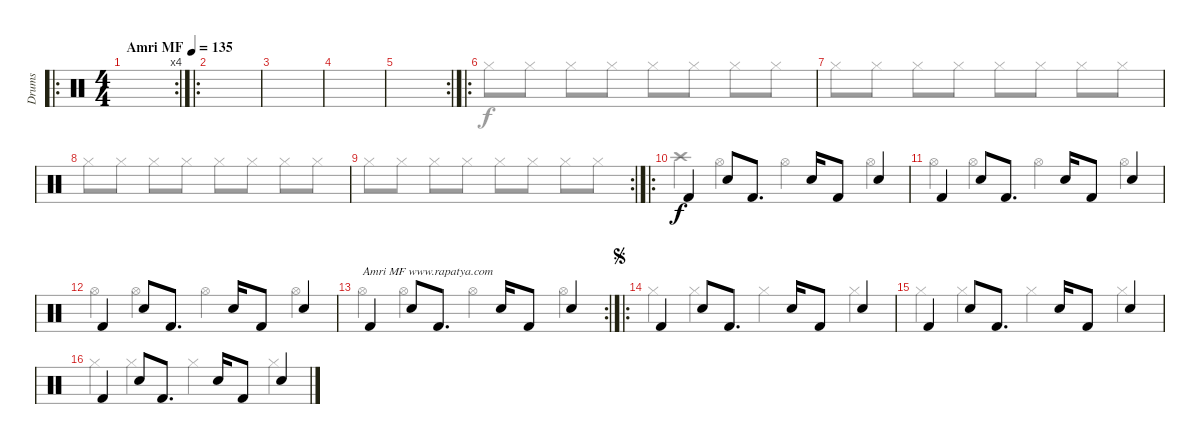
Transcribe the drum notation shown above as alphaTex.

\track ("Drums" "Drums") {instrument percussion}
\staff {score}
\articulation defaults
\voice
\ro
\rc 4
\ts (4 4)
\tempo (135 "Amri MF")
\clef neutral
\ks c
|
\ro
|
|
|
\rc 2
|
\ro
|
|
|
\rc 2
|
\ro "Kick (hit) 2".4 "Snare (hit) 2".8 "Kick (hit) 2".8{d} "Snare (hit) 2".16 "Kick (hit) 2".8 "Snare (hit) 2".4
|
"Kick (hit) 2".4 "Snare (hit) 2".8 "Kick (hit) 2".8{d} "Snare (hit) 2".16 "Kick (hit) 2".8 "Snare (hit) 2".4 |
"Kick (hit) 2".4 "Snare (hit) 2".8 "Kick (hit) 2".8{d} "Snare (hit) 2".16 "Kick (hit) 2".8 "Snare (hit) 2".4 |
\rc 2 "Kick (hit) 2".4{txt "Amri MF www.rapatya.com"} "Snare (hit) 2".8 "Kick (hit) 2".8{d} "Snare (hit) 2".16 "Kick (hit) 2".8 "Snare (hit) 2".4
|
\ro
\jump segno "Kick (hit) 2".4 "Snare (hit) 2".8 "Kick (hit) 2".8{d} "Snare (hit) 2".16 "Kick (hit) 2".8 "Snare (hit) 2".4
|
"Kick (hit) 2".4 "Snare (hit) 2".8 "Kick (hit) 2".8{d} "Snare (hit) 2".16 "Kick (hit) 2".8 "Snare (hit) 2".4 |
"Kick (hit) 2".4 "Snare (hit) 2".8 "Kick (hit) 2".8{d} "Snare (hit) 2".16 "Kick (hit) 2".8 "Snare (hit) 2".4
\voice
\clef neutral
\ottava regular
\simile none
\ks c
|
|
|
|
|
"Hi-Hat (closed)".8 "Hi-Hat (closed)".8 "Hi-Hat (closed)".8 "Hi-Hat (closed)".8 "Hi-Hat (closed)".8 "Hi-Hat (closed)".8 "Hi-Hat (closed)".8 "Hi-Hat (closed)".8 |
"Hi-Hat (closed)".8 "Hi-Hat (closed)".8 "Hi-Hat (closed)".8 "Hi-Hat (closed)".8 "Hi-Hat (closed)".8 "Hi-Hat (closed)".8 "Hi-Hat (closed)".8 "Hi-Hat (closed)".8 |
"Hi-Hat (closed)".8 "Hi-Hat (closed)".8 "Hi-Hat (closed)".8 "Hi-Hat (closed)".8 "Hi-Hat (closed)".8 "Hi-Hat (closed)".8 "Hi-Hat (closed)".8 "Hi-Hat (closed)".8 |
"Hi-Hat (closed)".8 "Hi-Hat (closed)".8 "Hi-Hat (closed)".8 "Hi-Hat (closed)".8 "Hi-Hat (closed)".8 "Hi-Hat (closed)".8 "Hi-Hat (closed)".8 "Hi-Hat (closed)".8 |
"Crash high (hit)".4 "Hi-Hat (open)".4 "Hi-Hat (open)".4 "Hi-Hat (open)".4 |
"Hi-Hat (open)".4 "Hi-Hat (open)".4 "Hi-Hat (open)".4 "Hi-Hat (open)".4 |
"Hi-Hat (open)".4 "Hi-Hat (open)".4 "Hi-Hat (open)".4 "Hi-Hat (open)".4 |
"Hi-Hat (open)".4 "Hi-Hat (open)".4 "Hi-Hat (open)".4 "Hi-Hat (open)".4 |
"Hi-Hat (closed)".4 "Hi-Hat (closed)".4 "Hi-Hat (closed)".4 "Hi-Hat (closed)".4 |
"Hi-Hat (closed)".4 "Hi-Hat (closed)".4 "Hi-Hat (closed)".4 "Hi-Hat (closed)".4 |
"Hi-Hat (closed)".4 "Hi-Hat (closed)".4 "Hi-Hat (closed)".4 "Hi-Hat (closed)".4
